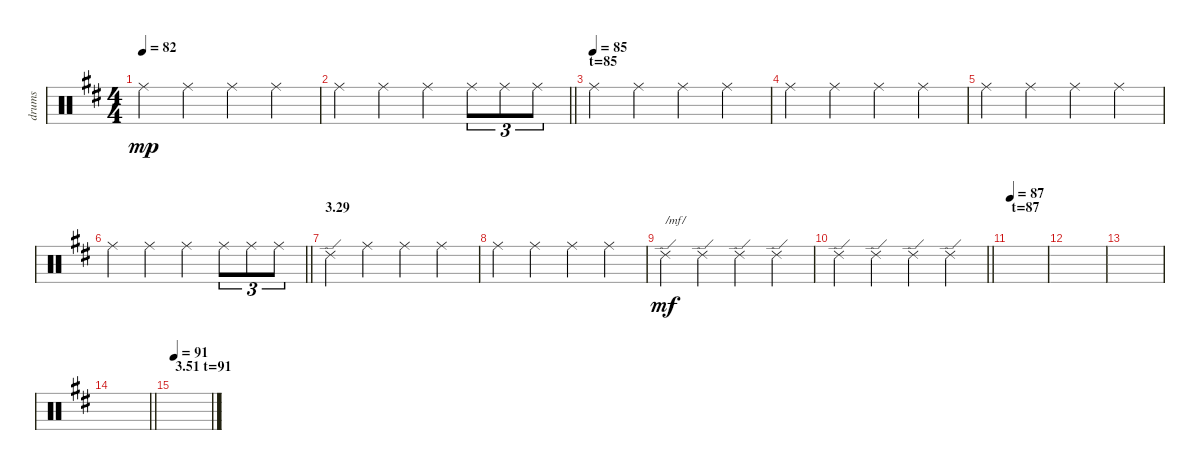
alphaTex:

\track ("drums" "drums") {instrument percussion}
\staff {score}
\articulation defaults
\ts (4 4)
\tempo 82
\clef neutral
\ks d "Ride (middle)".4{dy mp} "Ride (middle)".4 "Ride (middle)".4 "Ride (middle)".4
|
\barLineRight lightlight "Ride (middle)".4 "Ride (middle)".4 "Ride (middle)".4 "Ride (middle)".8{tu (3 2)} "Ride (middle)".8{tu (3 2)} "Ride (middle)".8{tu (3 2)}
|
\section ("" "t=85")
\tempo (85)
"Ride (middle)".4 "Ride (middle)".4 "Ride (middle)".4 "Ride (middle)".4 |
"Ride (middle)".4 "Ride (middle)".4 "Ride (middle)".4 "Ride (middle)".4 |
"Ride (middle)".4 "Ride (middle)".4 "Ride (middle)".4 "Ride (middle)".4 |
\barLineRight lightlight "Ride (middle)".4 "Ride (middle)".4 "Ride (middle)".4 "Ride (middle)".8{tu (3 2)} "Ride (middle)".8{tu (3 2)} "Ride (middle)".8{tu (3 2)}
|
\section ("" "3.29")
"Ride (edge) 2".4 "Ride (middle)".4 "Ride (middle)".4 "Ride (middle)".4 |
"Ride (middle)".4 "Ride (middle)".4 "Ride (middle)".4 "Ride (middle)".4 |
"Ride (edge) 2".4{txt "/mf/" dy mf} "Ride (edge) 2".4 "Ride (edge) 2".4 "Ride (edge) 2".4 |
\barLineRight lightlight "Ride (edge) 2".4 "Ride (edge) 2".4 "Ride (edge) 2".4 "Ride (edge) 2".4
|
\section ("" "t=87")
\tempo 87
|
|
|
\barLineRight lightlight
|
\section ("" "3.51 t=91")
\tempo 91
